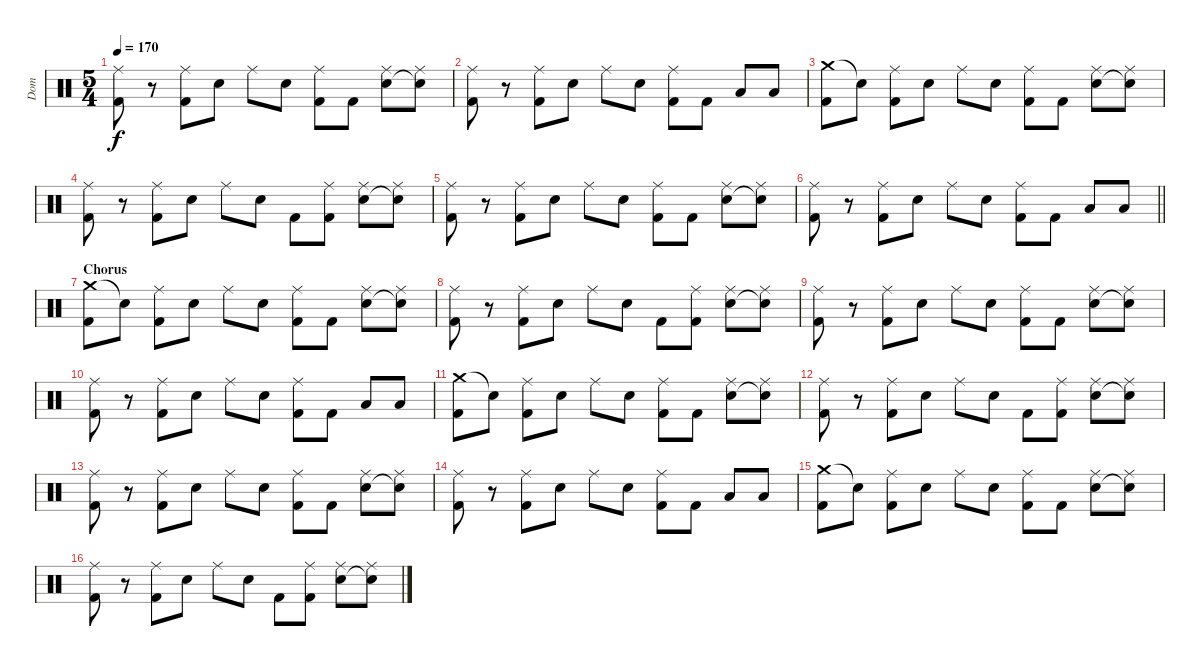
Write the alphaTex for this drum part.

\track ("Dom" "Dom") {instrument percussion}
\staff {score}
\articulation defaults
\ts (5 4)
\tempo 170
\clef neutral
\ks c
("Ride (middle)" "Kick (hit) 2").8{dy f} r.8 ("Ride (middle)" "Kick (hit) 2").8 "Electric Snare (hit)".8 "Ride (middle)".8 "Electric Snare (hit)".8 ("Ride (middle)" "Kick (hit) 2").8 "Kick (hit) 2".8 ("Ride (middle)" "Electric Snare (hit)").8 ("Ride (middle)" "Snare (hit)"{t}).8 |
("Ride (middle)" "Kick (hit) 2").8 r.8 ("Ride (middle)" "Kick (hit) 2").8 "Electric Snare (hit)".8 "Ride (middle)".8 "Electric Snare (hit)".8 ("Ride (middle)" "Kick (hit) 2").8 "Kick (hit) 2".8 "Low Tom (hit)".8 "Low Tom (hit)".8 |
("Crash medium (hit)" "Kick (hit) 2").8 "Snare (hit)"{t}.8 ("Ride (middle)" "Kick (hit) 2").8 "Electric Snare (hit)".8 "Ride (middle)".8 "Electric Snare (hit)".8 ("Ride (middle)" "Kick (hit) 2").8 "Kick (hit) 2".8 ("Ride (middle)" "Electric Snare (hit)").8 ("Ride (middle)" "Snare (hit)"{t}).8 |
("Ride (middle)" "Kick (hit) 2").8 r.8 ("Ride (middle)" "Kick (hit) 2").8 "Electric Snare (hit)".8 "Ride (middle)".8 "Electric Snare (hit)".8 "Kick (hit) 2".8 ("Ride (middle)" "Kick (hit) 2").8 ("Ride (middle)" "Electric Snare (hit)").8 ("Ride (middle)" "Snare (hit)"{t}).8 |
("Ride (middle)" "Kick (hit) 2").8 r.8 ("Ride (middle)" "Kick (hit) 2").8 "Electric Snare (hit)".8 "Ride (middle)".8 "Electric Snare (hit)".8 ("Ride (middle)" "Kick (hit) 2").8 "Kick (hit) 2".8 ("Ride (middle)" "Electric Snare (hit)").8 ("Ride (middle)" "Snare (hit)"{t}).8 |
\barLineRight lightlight
("Ride (middle)" "Kick (hit) 2").8 r.8 ("Ride (middle)" "Kick (hit) 2").8 "Electric Snare (hit)".8 "Ride (middle)".8 "Electric Snare (hit)".8 ("Ride (middle)" "Kick (hit) 2").8 "Kick (hit) 2".8 "Low Tom (hit)".8 "Low Tom (hit)".8 |
\section ("" "Chorus")
("Crash medium (hit)" "Kick (hit) 2").8 "Snare (hit)"{t}.8 ("Ride (middle)" "Kick (hit) 2").8 "Electric Snare (hit)".8 "Ride (middle)".8 "Electric Snare (hit)".8 ("Ride (middle)" "Kick (hit) 2").8 "Kick (hit) 2".8 ("Ride (middle)" "Electric Snare (hit)").8 ("Ride (middle)" "Snare (hit)"{t}).8 |
("Ride (middle)" "Kick (hit) 2").8 r.8 ("Ride (middle)" "Kick (hit) 2").8 "Electric Snare (hit)".8 "Ride (middle)".8 "Electric Snare (hit)".8 "Kick (hit) 2".8 ("Ride (middle)" "Kick (hit) 2").8 ("Ride (middle)" "Electric Snare (hit)").8 ("Ride (middle)" "Snare (hit)"{t}).8 |
("Ride (middle)" "Kick (hit) 2").8 r.8 ("Ride (middle)" "Kick (hit) 2").8 "Electric Snare (hit)".8 "Ride (middle)".8 "Electric Snare (hit)".8 ("Ride (middle)" "Kick (hit) 2").8 "Kick (hit) 2".8 ("Ride (middle)" "Electric Snare (hit)").8 ("Ride (middle)" "Snare (hit)"{t}).8 |
("Ride (middle)" "Kick (hit) 2").8 r.8 ("Ride (middle)" "Kick (hit) 2").8 "Electric Snare (hit)".8 "Ride (middle)".8 "Electric Snare (hit)".8 ("Ride (middle)" "Kick (hit) 2").8 "Kick (hit) 2".8 "Low Tom (hit)".8 "Low Tom (hit)".8 |
("Crash medium (hit)" "Kick (hit) 2").8 "Snare (hit)"{t}.8 ("Ride (middle)" "Kick (hit) 2").8 "Electric Snare (hit)".8 "Ride (middle)".8 "Electric Snare (hit)".8 ("Ride (middle)" "Kick (hit) 2").8 "Kick (hit) 2".8 ("Ride (middle)" "Electric Snare (hit)").8 ("Ride (middle)" "Snare (hit)"{t}).8 |
("Ride (middle)" "Kick (hit) 2").8 r.8 ("Ride (middle)" "Kick (hit) 2").8 "Electric Snare (hit)".8 "Ride (middle)".8 "Electric Snare (hit)".8 "Kick (hit) 2".8 ("Ride (middle)" "Kick (hit) 2").8 ("Ride (middle)" "Electric Snare (hit)").8 ("Ride (middle)" "Snare (hit)"{t}).8 |
("Ride (middle)" "Kick (hit) 2").8 r.8 ("Ride (middle)" "Kick (hit) 2").8 "Electric Snare (hit)".8 "Ride (middle)".8 "Electric Snare (hit)".8 ("Ride (middle)" "Kick (hit) 2").8 "Kick (hit) 2".8 ("Ride (middle)" "Electric Snare (hit)").8 ("Ride (middle)" "Snare (hit)"{t}).8 |
("Ride (middle)" "Kick (hit) 2").8 r.8 ("Ride (middle)" "Kick (hit) 2").8 "Electric Snare (hit)".8 "Ride (middle)".8 "Electric Snare (hit)".8 ("Ride (middle)" "Kick (hit) 2").8 "Kick (hit) 2".8 "Low Tom (hit)".8 "Low Tom (hit)".8 |
("Crash medium (hit)" "Kick (hit) 2").8 "Snare (hit)"{t}.8 ("Ride (middle)" "Kick (hit) 2").8 "Electric Snare (hit)".8 "Ride (middle)".8 "Electric Snare (hit)".8 ("Ride (middle)" "Kick (hit) 2").8 "Kick (hit) 2".8 ("Ride (middle)" "Electric Snare (hit)").8 ("Ride (middle)" "Snare (hit)"{t}).8 |
("Ride (middle)" "Kick (hit) 2").8 r.8 ("Ride (middle)" "Kick (hit) 2").8 "Electric Snare (hit)".8 "Ride (middle)".8 "Electric Snare (hit)".8 "Kick (hit) 2".8 ("Ride (middle)" "Kick (hit) 2").8 ("Ride (middle)" "Electric Snare (hit)").8 ("Ride (middle)" "Snare (hit)"{t}).8
